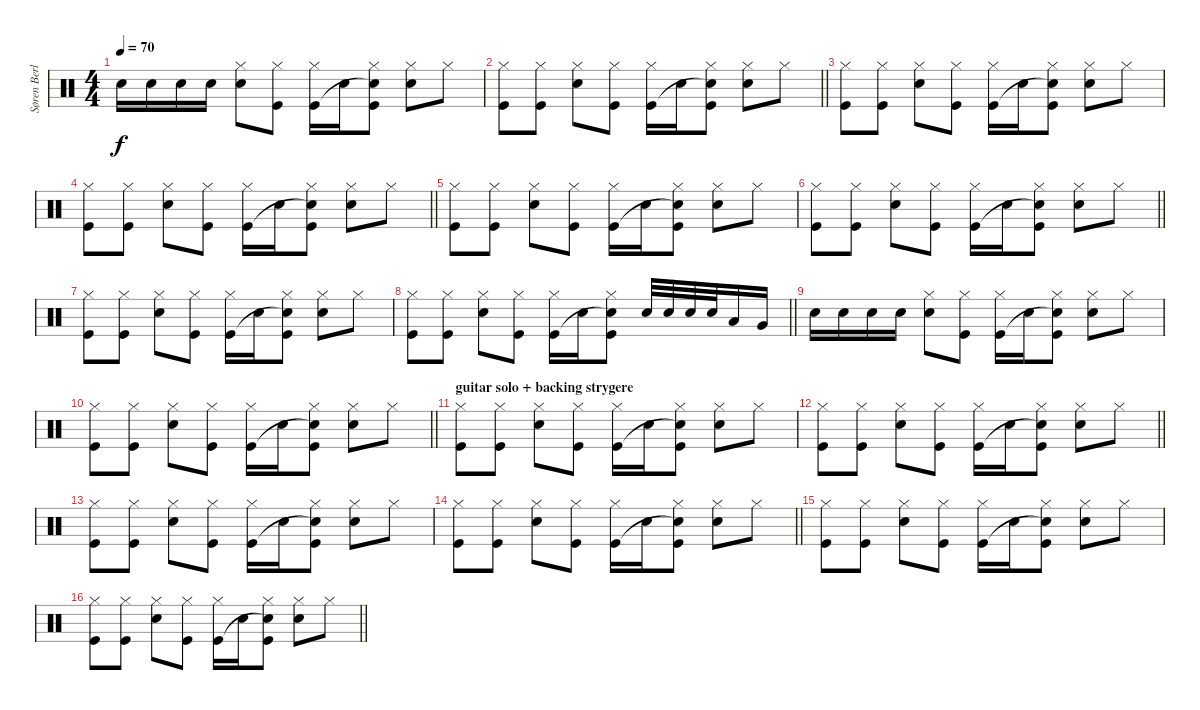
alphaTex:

\track ("Søren Berlev" "Søren Berl") {instrument percussion}
\staff {score}
\articulation defaults
\ts (4 4)
\tempo 70
\clef neutral
\ks c "Snare (hit) 2".16{dy f} "Snare (hit) 2".16 "Snare (hit) 2".16 "Snare (hit) 2".16
("Hi-Hat (closed)" "Snare (hit) 2").8 ("Hi-Hat (closed)" "Kick (hit)").8 ("Hi-Hat (closed)" "Kick (hit)").16 "Snare (hit) 2".16 ("Hi-Hat (closed)" "Snare (hit)"{t} "Kick (hit)").8 ("Hi-Hat (closed)" "Snare (hit) 2").8 "Hi-Hat (closed)".8 |
\barLineRight lightlight
("Hi-Hat (closed)" "Kick (hit)").8 ("Hi-Hat (closed)" "Kick (hit)").8 ("Hi-Hat (closed)" "Snare (hit) 2").8 ("Hi-Hat (closed)" "Kick (hit)").8 ("Hi-Hat (closed)" "Kick (hit)").16 "Snare (hit) 2".16 ("Hi-Hat (closed)" "Snare (hit)"{t} "Kick (hit)").8 ("Hi-Hat (closed)" "Snare (hit) 2").8 "Hi-Hat (closed)".8 |
("Hi-Hat (closed)" "Kick (hit)").8 ("Hi-Hat (closed)" "Kick (hit)").8 ("Hi-Hat (closed)" "Snare (hit) 2").8 ("Hi-Hat (closed)" "Kick (hit)").8 ("Hi-Hat (closed)" "Kick (hit)").16 "Snare (hit) 2".16 ("Hi-Hat (closed)" "Snare (hit)"{t} "Kick (hit)").8 ("Hi-Hat (closed)" "Snare (hit) 2").8 "Hi-Hat (closed)".8 |
\barLineRight lightlight
("Hi-Hat (closed)" "Kick (hit)").8 ("Hi-Hat (closed)" "Kick (hit)").8 ("Hi-Hat (closed)" "Snare (hit) 2").8 ("Hi-Hat (closed)" "Kick (hit)").8 ("Hi-Hat (closed)" "Kick (hit)").16 "Snare (hit) 2".16 ("Hi-Hat (closed)" "Snare (hit)"{t} "Kick (hit)").8 ("Hi-Hat (closed)" "Snare (hit) 2").8 "Hi-Hat (closed)".8 |
("Hi-Hat (closed)" "Kick (hit)").8 ("Hi-Hat (closed)" "Kick (hit)").8 ("Hi-Hat (closed)" "Snare (hit) 2").8 ("Hi-Hat (closed)" "Kick (hit)").8 ("Hi-Hat (closed)" "Kick (hit)").16 "Snare (hit) 2".16 ("Hi-Hat (closed)" "Snare (hit)"{t} "Kick (hit)").8 ("Hi-Hat (closed)" "Snare (hit) 2").8 "Hi-Hat (closed)".8 |
\barLineRight lightlight
("Hi-Hat (closed)" "Kick (hit)").8 ("Hi-Hat (closed)" "Kick (hit)").8 ("Hi-Hat (closed)" "Snare (hit) 2").8 ("Hi-Hat (closed)" "Kick (hit)").8 ("Hi-Hat (closed)" "Kick (hit)").16 "Snare (hit) 2".16 ("Hi-Hat (closed)" "Snare (hit)"{t} "Kick (hit)").8 ("Hi-Hat (closed)" "Snare (hit) 2").8 "Hi-Hat (closed)".8 |
("Hi-Hat (closed)" "Kick (hit)").8 ("Hi-Hat (closed)" "Kick (hit)").8 ("Hi-Hat (closed)" "Snare (hit) 2").8 ("Hi-Hat (closed)" "Kick (hit)").8 ("Hi-Hat (closed)" "Kick (hit)").16 "Snare (hit) 2".16 ("Hi-Hat (closed)" "Snare (hit)"{t} "Kick (hit)").8 ("Hi-Hat (closed)" "Snare (hit) 2").8 "Hi-Hat (closed)".8 |
\barLineRight lightlight
("Hi-Hat (closed)" "Kick (hit)").8 ("Hi-Hat (closed)" "Kick (hit)").8 ("Hi-Hat (closed)" "Snare (hit) 2").8 ("Hi-Hat (closed)" "Kick (hit)").8 ("Hi-Hat (closed)" "Kick (hit)").16 "Snare (hit) 2".16 ("Hi-Hat (closed)" "Snare (hit)"{t} "Kick (hit)").8 "Snare (hit) 2".32 "Snare (hit) 2".32 "Snare (hit) 2".32 "Snare (hit) 2".32 "Low Tom (hit)".16 "Very Low Tom (hit)".16 |
\section ("" "")
"Snare (hit) 2".16 "Snare (hit) 2".16 "Snare (hit) 2".16 "Snare (hit) 2".16 ("Hi-Hat (closed)" "Snare (hit) 2").8 ("Hi-Hat (closed)" "Kick (hit)").8 ("Hi-Hat (closed)" "Kick (hit)").16 "Snare (hit) 2".16 ("Hi-Hat (closed)" "Snare (hit)"{t} "Kick (hit)").8 ("Hi-Hat (closed)" "Snare (hit) 2").8 "Hi-Hat (closed)".8 |
\barLineRight lightlight
("Hi-Hat (closed)" "Kick (hit)").8 ("Hi-Hat (closed)" "Kick (hit)").8 ("Hi-Hat (closed)" "Snare (hit) 2").8 ("Hi-Hat (closed)" "Kick (hit)").8 ("Hi-Hat (closed)" "Kick (hit)").16 "Snare (hit) 2".16 ("Hi-Hat (closed)" "Snare (hit)"{t} "Kick (hit)").8 ("Hi-Hat (closed)" "Snare (hit) 2").8 "Hi-Hat (closed)".8 |
\section ("" "guitar solo + backing strygere")
("Hi-Hat (closed)" "Kick (hit)").8 ("Hi-Hat (closed)" "Kick (hit)").8 ("Hi-Hat (closed)" "Snare (hit) 2").8 ("Hi-Hat (closed)" "Kick (hit)").8 ("Hi-Hat (closed)" "Kick (hit)").16 "Snare (hit) 2".16 ("Hi-Hat (closed)" "Snare (hit)"{t} "Kick (hit)").8 ("Hi-Hat (closed)" "Snare (hit) 2").8 "Hi-Hat (closed)".8 |
\barLineRight lightlight
("Hi-Hat (closed)" "Kick (hit)").8 ("Hi-Hat (closed)" "Kick (hit)").8 ("Hi-Hat (closed)" "Snare (hit) 2").8 ("Hi-Hat (closed)" "Kick (hit)").8 ("Hi-Hat (closed)" "Kick (hit)").16 "Snare (hit) 2".16 ("Hi-Hat (closed)" "Snare (hit)"{t} "Kick (hit)").8 ("Hi-Hat (closed)" "Snare (hit) 2").8 "Hi-Hat (closed)".8 |
("Hi-Hat (closed)" "Kick (hit)").8 ("Hi-Hat (closed)" "Kick (hit)").8 ("Hi-Hat (closed)" "Snare (hit) 2").8 ("Hi-Hat (closed)" "Kick (hit)").8 ("Hi-Hat (closed)" "Kick (hit)").16 "Snare (hit) 2".16 ("Hi-Hat (closed)" "Snare (hit)"{t} "Kick (hit)").8 ("Hi-Hat (closed)" "Snare (hit) 2").8 "Hi-Hat (closed)".8 |
\barLineRight lightlight
("Hi-Hat (closed)" "Kick (hit)").8 ("Hi-Hat (closed)" "Kick (hit)").8 ("Hi-Hat (closed)" "Snare (hit) 2").8 ("Hi-Hat (closed)" "Kick (hit)").8 ("Hi-Hat (closed)" "Kick (hit)").16 "Snare (hit) 2".16 ("Hi-Hat (closed)" "Snare (hit)"{t} "Kick (hit)").8 ("Hi-Hat (closed)" "Snare (hit) 2").8 "Hi-Hat (closed)".8 |
("Hi-Hat (closed)" "Kick (hit)").8 ("Hi-Hat (closed)" "Kick (hit)").8 ("Hi-Hat (closed)" "Snare (hit) 2").8 ("Hi-Hat (closed)" "Kick (hit)").8 ("Hi-Hat (closed)" "Kick (hit)").16 "Snare (hit) 2".16 ("Hi-Hat (closed)" "Snare (hit)"{t} "Kick (hit)").8 ("Hi-Hat (closed)" "Snare (hit) 2").8 "Hi-Hat (closed)".8 |
\barLineRight lightlight
("Hi-Hat (closed)" "Kick (hit)").8 ("Hi-Hat (closed)" "Kick (hit)").8 ("Hi-Hat (closed)" "Snare (hit) 2").8 ("Hi-Hat (closed)" "Kick (hit)").8 ("Hi-Hat (closed)" "Kick (hit)").16 "Snare (hit) 2".16 ("Hi-Hat (closed)" "Snare (hit)"{t} "Kick (hit)").8 ("Hi-Hat (closed)" "Snare (hit) 2").8 "Hi-Hat (closed)".8
